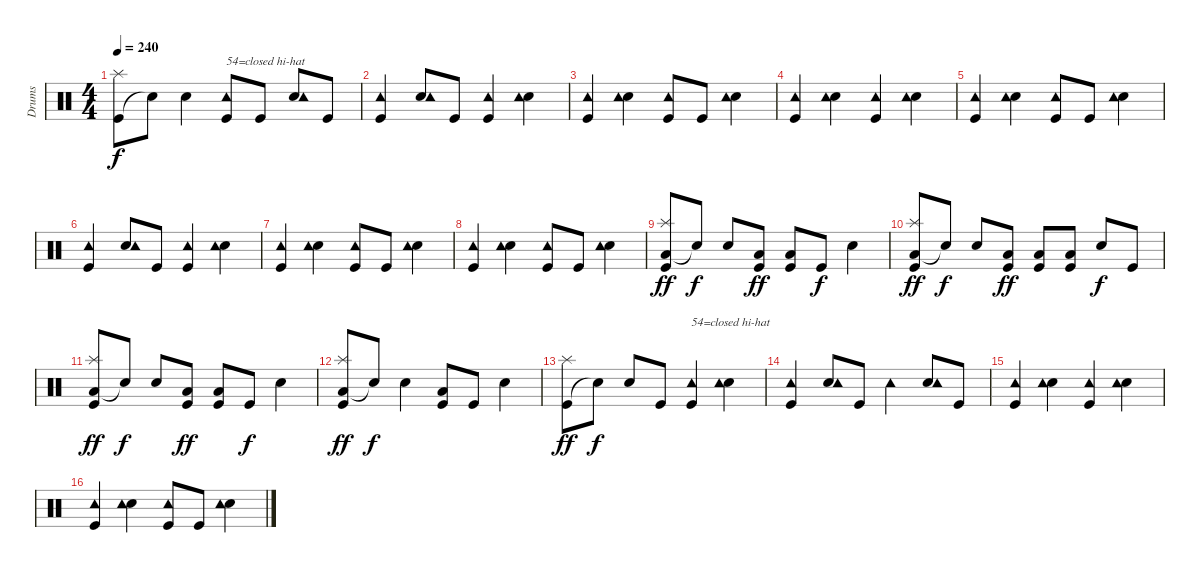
\track ("Drums" "Drums") {instrument percussion}
\staff {score}
\articulation defaults
\ts (4 4)
\tempo 240
\clef neutral
\ks c
("Kick (hit)" "Splash (hit)").8{dy f} "Snare (hit)"{t}.8 "Snare (hit) 2".4 ("Kick (hit)" "Tambourine (hit)").8{txt "54=closed hi-hat"} "Kick (hit)".8 ("Snare (hit) 2" "Tambourine (hit)").8 "Kick (hit)".8 |
("Kick (hit)" "Tambourine (hit)").4 ("Snare (hit) 2" "Tambourine (hit)").8 "Kick (hit)".8 ("Kick (hit)" "Tambourine (hit)").4 ("Snare (hit) 2" "Tambourine (hit)").4 |
("Kick (hit)" "Tambourine (hit)").4 ("Snare (hit) 2" "Tambourine (hit)").4 ("Kick (hit)" "Tambourine (hit)").8 "Kick (hit)".8 ("Snare (hit) 2" "Tambourine (hit)").4 |
("Kick (hit)" "Tambourine (hit)").4 ("Snare (hit) 2" "Tambourine (hit)").4 ("Kick (hit)" "Tambourine (hit)").4 ("Snare (hit) 2" "Tambourine (hit)").4 |
("Kick (hit)" "Tambourine (hit)").4 ("Snare (hit) 2" "Tambourine (hit)").4 ("Kick (hit)" "Tambourine (hit)").8 "Kick (hit)".8 ("Snare (hit) 2" "Tambourine (hit)").4 |
("Kick (hit)" "Tambourine (hit)").4 ("Snare (hit) 2" "Tambourine (hit)").8 "Kick (hit)".8 ("Kick (hit)" "Tambourine (hit)").4 ("Snare (hit) 2" "Tambourine (hit)").4 |
("Kick (hit)" "Tambourine (hit)").4 ("Snare (hit) 2" "Tambourine (hit)").4 ("Kick (hit)" "Tambourine (hit)").8 "Kick (hit)".8 ("Snare (hit) 2" "Tambourine (hit)").4 |
("Kick (hit)" "Tambourine (hit)").4 ("Snare (hit) 2" "Tambourine (hit)").4 ("Kick (hit)" "Tambourine (hit)").8 "Kick (hit)".8 ("Snare (hit) 2" "Tambourine (hit)").4 |
("Low Floor Tom (hit)" "Kick (hit)" "Splash (hit)").8{dy ff} "Snare (hit)"{t}.8{dy f} "Snare (hit) 2".8 ("Low Floor Tom (hit)" "Kick (hit)").8{dy ff} ("Low Floor Tom (hit)" "Kick (hit)").8 "Kick (hit)".8{dy f} "Snare (hit) 2".4 |
("Low Floor Tom (hit)" "Kick (hit)" "Splash (hit)").8{dy ff} "Snare (hit)"{t}.8{dy f} "Snare (hit) 2".8 ("Low Floor Tom (hit)" "Kick (hit)").8{dy ff} ("Low Floor Tom (hit)" "Kick (hit)").8 ("Low Floor Tom (hit)" "Kick (hit)").8 "Snare (hit) 2".8{dy f} "Kick (hit)".8 |
("Low Floor Tom (hit)" "Kick (hit)" "Splash (hit)").8{dy ff} "Snare (hit)"{t}.8{dy f} "Snare (hit) 2".8 ("Low Floor Tom (hit)" "Kick (hit)").8{dy ff} ("Low Floor Tom (hit)" "Kick (hit)").8 "Kick (hit)".8{dy f} "Snare (hit) 2".4 |
("Low Floor Tom (hit)" "Kick (hit)" "Splash (hit)").8{dy ff} "Snare (hit)"{t}.8{dy f} "Snare (hit) 2".4 ("Low Floor Tom (hit)" "Kick (hit)").8 "Kick (hit)".8 "Snare (hit) 2".4 |
("Kick (hit)" "Splash (hit)").8{dy ff} "Snare (hit)"{t}.8{dy f} "Snare (hit) 2".8 "Kick (hit)".8 ("Kick (hit)" "Tambourine (hit)").4{txt "54=closed hi-hat"} ("Snare (hit) 2" "Tambourine (hit)").4 |
("Kick (hit)" "Tambourine (hit)").4 ("Snare (hit) 2" "Tambourine (hit)").8 "Kick (hit)".8 "Tambourine (hit)".4 ("Snare (hit) 2" "Tambourine (hit)").8 "Kick (hit)".8 |
("Kick (hit)" "Tambourine (hit)").4 ("Snare (hit) 2" "Tambourine (hit)").4 ("Kick (hit)" "Tambourine (hit)").4 ("Snare (hit) 2" "Tambourine (hit)").4 |
("Kick (hit)" "Tambourine (hit)").4 ("Snare (hit) 2" "Tambourine (hit)").4 ("Kick (hit)" "Tambourine (hit)").8 "Kick (hit)".8 ("Snare (hit) 2" "Tambourine (hit)").4
